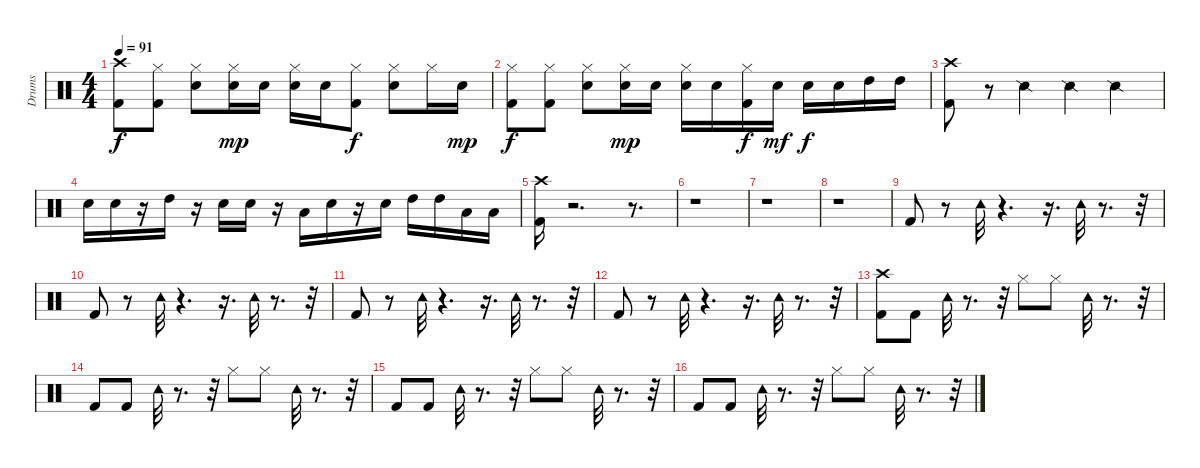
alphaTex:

\track ("Drums" "Drums") {instrument percussion}
\staff {score}
\articulation defaults
\ts (4 4)
\tempo 91
\clef neutral
\ks c
("Kick (hit) 2" "Crash high (hit)").8{dy f} ("Kick (hit) 2" "Hi-Hat (closed)").8 ("Snare (hit) 2" "Hi-Hat (closed)").8 ("Snare (hit) 2" "Hi-Hat (closed)").16{dy mp} "Snare (hit) 2".16 ("Snare (hit) 2" "Hi-Hat (closed)").16 "Snare (hit) 2".16 ("Kick (hit) 2" "Hi-Hat (closed)").8{dy f} ("Snare (hit) 2" "Hi-Hat (closed)").8 "Hi-Hat (closed)".16 "Snare (hit) 2".16{dy mp} |
("Kick (hit) 2" "Hi-Hat (closed)").8{dy f} ("Kick (hit) 2" "Hi-Hat (closed)").8 ("Snare (hit) 2" "Hi-Hat (closed)").8 ("Snare (hit) 2" "Hi-Hat (closed)").16{dy mp} "Snare (hit) 2".16 ("Snare (hit) 2" "Hi-Hat (closed)").16 "Snare (hit) 2".16 ("Kick (hit) 2" "Hi-Hat (closed)").16{dy f} "Snare (hit) 2".16{dy mf} "Snare (hit) 2".16{dy f} "Snare (hit) 2".16 "High Tom (hit)".16 "High Tom (hit)".16 |
("Kick (hit) 2" "Crash high (hit)").8{volume 16} r.8 "Snare (side stick) 2".4 "Snare (side stick) 2".4 "Snare (side stick) 2".4 |
"Snare (hit) 2".16 "Snare (hit) 2".16 r.16 "High Tom (hit)".16 r.16 "Snare (hit) 2".16 "Snare (hit) 2".16 r.16 "Low Tom (hit)".16 "Snare (hit) 2".16 r.16 "Snare (hit) 2".16 "High Tom (hit)".16 "High Tom (hit)".16 "Low Tom (hit)".16 "Low Tom (hit)".16 |
("Kick (hit) 2" "Crash high (hit)").16 r.2{d} r.8{d} |
r.1 |
r.1 |
r.1 |
"Kick (hit) 2".8 r.8 "Tambourine (hit)".32 r.4{d} r.16{d} "Tambourine (hit)".32 r.8{d} r.32 |
"Kick (hit) 2".8 r.8 "Tambourine (hit)".32 r.4{d} r.16{d} "Tambourine (hit)".32 r.8{d} r.32 |
"Kick (hit) 2".8 r.8 "Tambourine (hit)".32 r.4{d} r.16{d} "Tambourine (hit)".32 r.8{d} r.32 |
"Kick (hit) 2".8 r.8 "Tambourine (hit)".32 r.4{d} r.16{d} "Tambourine (hit)".32 r.8{d} r.32 |
("Kick (hit) 2" "Crash high (hit)").8 "Kick (hit) 2".8 "Tambourine (hit)".32 r.8{d} r.32 "Hi-Hat (closed)".8 "Hi-Hat (closed)".8 "Tambourine (hit)".32 r.8{d} r.32 |
"Kick (hit) 2".8{volume 16} "Kick (hit) 2".8 "Tambourine (hit)".32 r.8{d} r.32 "Hi-Hat (closed)".8 "Hi-Hat (closed)".8 "Tambourine (hit)".32 r.8{d} r.32 |
"Kick (hit) 2".8{volume 16} "Kick (hit) 2".8 "Tambourine (hit)".32 r.8{d} r.32 "Hi-Hat (closed)".8 "Hi-Hat (closed)".8 "Tambourine (hit)".32 r.8{d} r.32 |
"Kick (hit) 2".8 "Kick (hit) 2".8 "Tambourine (hit)".32 r.8{d} r.32 "Hi-Hat (closed)".8 "Hi-Hat (closed)".8 "Tambourine (hit)".32 r.8{d} r.32
